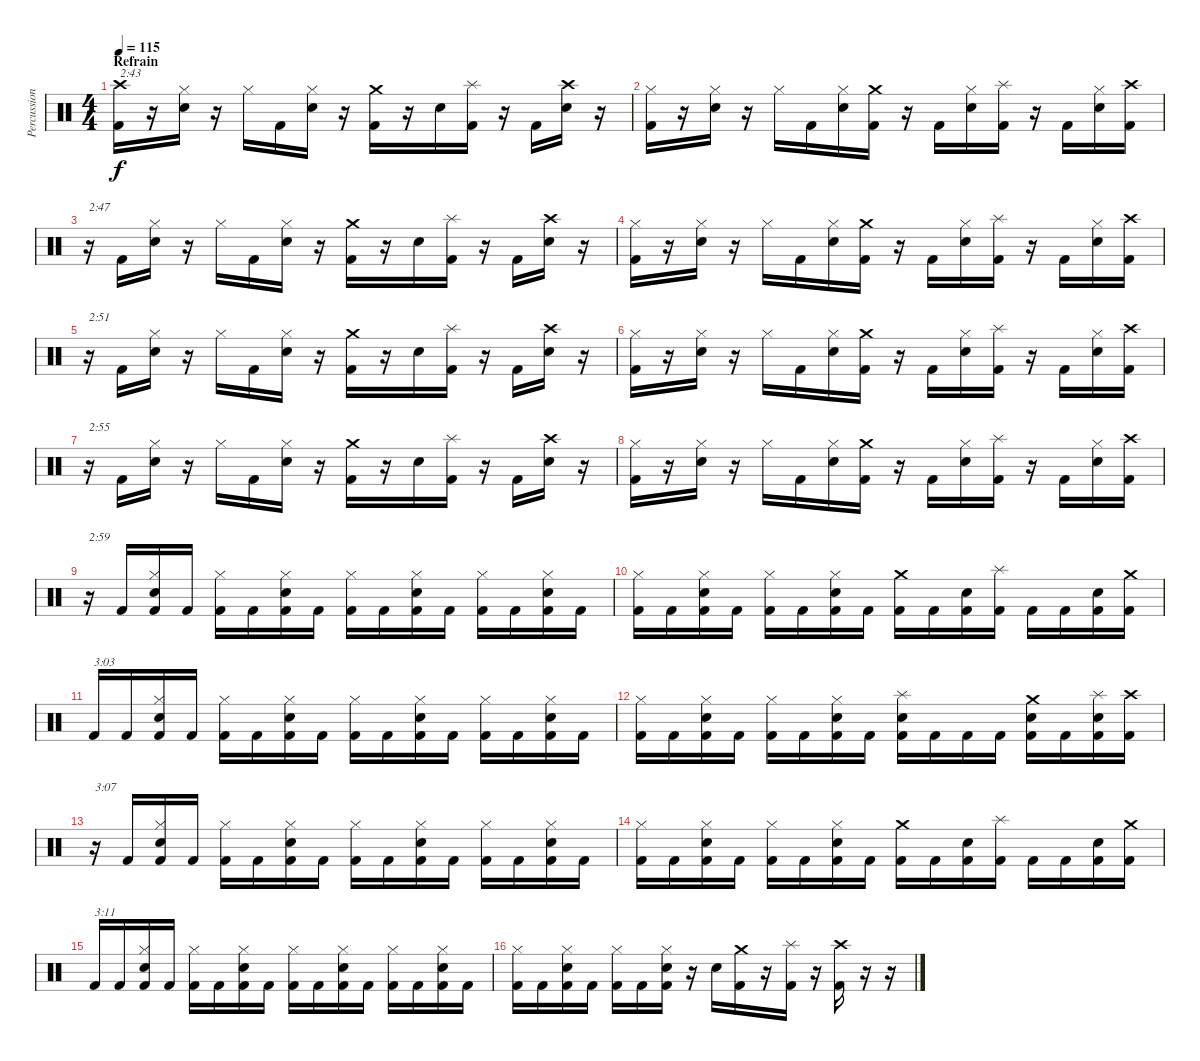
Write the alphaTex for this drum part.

\track ("Percussion" "Percussion") {instrument percussion}
\staff {score}
\articulation defaults
\ts (4 4)
\section ("" "Refrain")
\tempo 115
\clef neutral
\ks c
("Crash high (hit)" "Kick (hit) 2").16{txt "2:43" dy f} r.16 ("Hi-Hat (closed)" "Electric Snare (hit)").16 r.16 "Hi-Hat (closed)".16 "Kick (hit) 2".16 ("Hi-Hat (closed)" "Electric Snare (hit)").16 r.16 ("Crash medium (hit)" "Kick (hit) 2").16 r.16 "Electric Snare (hit)".16 ("Splash (hit)" "Kick (hit) 2").16 r.16 "Kick (hit) 2".16 ("Crash high (hit)" "Electric Snare (hit)").16 r.16 |
("Hi-Hat (closed)" "Kick (hit) 2").16 r.16 ("Hi-Hat (closed)" "Electric Snare (hit)").16 r.16 "Hi-Hat (closed)".16 "Kick (hit) 2".16 ("Hi-Hat (closed)" "Electric Snare (hit)").16 ("Crash medium (hit)" "Kick (hit) 2").16 r.16 "Kick (hit) 2".16 ("Hi-Hat (closed)" "Electric Snare (hit)").16 ("Splash (hit)" "Kick (hit) 2").16 r.16 "Kick (hit) 2".16 ("Hi-Hat (closed)" "Electric Snare (hit)").16 ("Crash high (hit)" "Kick (hit) 2").16 |
r.16{txt "2:47"} "Kick (hit) 2".16 ("Hi-Hat (closed)" "Electric Snare (hit)").16 r.16 "Hi-Hat (closed)".16 "Kick (hit) 2".16 ("Hi-Hat (closed)" "Electric Snare (hit)").16 r.16 ("Crash medium (hit)" "Kick (hit) 2").16 r.16 "Electric Snare (hit)".16 ("Splash (hit)" "Kick (hit) 2").16 r.16 "Kick (hit) 2".16 ("Crash high (hit)" "Electric Snare (hit)").16 r.16 |
("Hi-Hat (closed)" "Kick (hit) 2").16 r.16 ("Hi-Hat (closed)" "Electric Snare (hit)").16 r.16 "Hi-Hat (closed)".16 "Kick (hit) 2".16 ("Hi-Hat (closed)" "Electric Snare (hit)").16 ("Crash medium (hit)" "Kick (hit) 2").16 r.16 "Kick (hit) 2".16 ("Hi-Hat (closed)" "Electric Snare (hit)").16 ("Splash (hit)" "Kick (hit) 2").16 r.16 "Kick (hit) 2".16 ("Hi-Hat (closed)" "Electric Snare (hit)").16 ("Crash high (hit)" "Kick (hit) 2").16 |
r.16{txt "2:51"} "Kick (hit) 2".16 ("Hi-Hat (closed)" "Electric Snare (hit)").16 r.16 "Hi-Hat (closed)".16 "Kick (hit) 2".16 ("Hi-Hat (closed)" "Electric Snare (hit)").16 r.16 ("Crash medium (hit)" "Kick (hit) 2").16 r.16 "Electric Snare (hit)".16 ("Splash (hit)" "Kick (hit) 2").16 r.16 "Kick (hit) 2".16 ("Crash high (hit)" "Electric Snare (hit)").16 r.16 |
("Hi-Hat (closed)" "Kick (hit) 2").16 r.16 ("Hi-Hat (closed)" "Electric Snare (hit)").16 r.16 "Hi-Hat (closed)".16 "Kick (hit) 2".16 ("Hi-Hat (closed)" "Electric Snare (hit)").16 ("Crash medium (hit)" "Kick (hit) 2").16 r.16 "Kick (hit) 2".16 ("Hi-Hat (closed)" "Electric Snare (hit)").16 ("Splash (hit)" "Kick (hit) 2").16 r.16 "Kick (hit) 2".16 ("Hi-Hat (closed)" "Electric Snare (hit)").16 ("Crash high (hit)" "Kick (hit) 2").16 |
r.16{txt "2:55"} "Kick (hit) 2".16 ("Hi-Hat (closed)" "Electric Snare (hit)").16 r.16 "Hi-Hat (closed)".16 "Kick (hit) 2".16 ("Hi-Hat (closed)" "Electric Snare (hit)").16 r.16 ("Crash medium (hit)" "Kick (hit) 2").16 r.16 "Electric Snare (hit)".16 ("Splash (hit)" "Kick (hit) 2").16 r.16 "Kick (hit) 2".16 ("Crash high (hit)" "Electric Snare (hit)").16 r.16 |
("Hi-Hat (closed)" "Kick (hit) 2").16 r.16 ("Hi-Hat (closed)" "Electric Snare (hit)").16 r.16 "Hi-Hat (closed)".16 "Kick (hit) 2".16 ("Hi-Hat (closed)" "Electric Snare (hit)").16 ("Crash medium (hit)" "Kick (hit) 2").16 r.16 "Kick (hit) 2".16 ("Hi-Hat (closed)" "Electric Snare (hit)").16 ("Splash (hit)" "Kick (hit) 2").16 r.16 "Kick (hit) 2".16 ("Hi-Hat (closed)" "Electric Snare (hit)").16 ("Crash high (hit)" "Kick (hit) 2").16 |
r.16{txt "2:59"} "Kick (hit) 2".16 ("Hi-Hat (closed)" "Electric Snare (hit)" "Kick (hit) 2").16 "Kick (hit) 2".16 ("Hi-Hat (closed)" "Kick (hit) 2").16 "Kick (hit) 2".16 ("Hi-Hat (closed)" "Electric Snare (hit)" "Kick (hit) 2").16 "Kick (hit) 2".16 ("Hi-Hat (closed)" "Kick (hit) 2").16 "Kick (hit) 2".16 ("Hi-Hat (closed)" "Electric Snare (hit)" "Kick (hit) 2").16 "Kick (hit) 2".16 ("Hi-Hat (closed)" "Kick (hit) 2").16 "Kick (hit) 2".16 ("Hi-Hat (closed)" "Electric Snare (hit)" "Kick (hit) 2").16 "Kick (hit) 2".16 |
("Hi-Hat (closed)" "Kick (hit) 2").16 "Kick (hit) 2".16 ("Hi-Hat (closed)" "Electric Snare (hit)" "Kick (hit) 2").16 "Kick (hit) 2".16 ("Hi-Hat (closed)" "Kick (hit) 2").16 "Kick (hit) 2".16 ("Hi-Hat (closed)" "Electric Snare (hit)" "Kick (hit) 2").16 "Kick (hit) 2".16 ("Crash medium (hit)" "Kick (hit) 2").16 "Kick (hit) 2".16 ("Electric Snare (hit)" "Kick (hit) 2").16 ("Splash (hit)" "Kick (hit) 2").16 "Kick (hit) 2".16 "Kick (hit) 2".16 ("Electric Snare (hit)" "Kick (hit) 2").16 ("Crash medium (hit)" "Kick (hit) 2").16 |
"Kick (hit) 2".16{txt "3:03"} "Kick (hit) 2".16 ("Hi-Hat (closed)" "Electric Snare (hit)" "Kick (hit) 2").16 "Kick (hit) 2".16 ("Hi-Hat (closed)" "Kick (hit) 2").16 "Kick (hit) 2".16 ("Hi-Hat (closed)" "Electric Snare (hit)" "Kick (hit) 2").16 "Kick (hit) 2".16 ("Hi-Hat (closed)" "Kick (hit) 2").16 "Kick (hit) 2".16 ("Hi-Hat (closed)" "Electric Snare (hit)" "Kick (hit) 2").16 "Kick (hit) 2".16 ("Hi-Hat (closed)" "Kick (hit) 2").16 "Kick (hit) 2".16 ("Hi-Hat (closed)" "Electric Snare (hit)" "Kick (hit) 2").16 "Kick (hit) 2".16 |
("Hi-Hat (closed)" "Kick (hit) 2").16 "Kick (hit) 2".16 ("Hi-Hat (closed)" "Electric Snare (hit)" "Kick (hit) 2").16 "Kick (hit) 2".16 ("Hi-Hat (closed)" "Kick (hit) 2").16 "Kick (hit) 2".16 ("Hi-Hat (closed)" "Electric Snare (hit)" "Kick (hit) 2").16 "Kick (hit) 2".16 ("Splash (hit)" "Electric Snare (hit)" "Kick (hit) 2").16 "Kick (hit) 2".16 "Kick (hit) 2".16 "Kick (hit) 2".16 ("Crash medium (hit)" "Electric Snare (hit)" "Kick (hit) 2").16 "Kick (hit) 2".16 ("Splash (hit)" "Electric Snare (hit)" "Kick (hit) 2").16 ("Crash high (hit)" "Kick (hit) 2").16 |
r.16{txt "3:07"} "Kick (hit) 2".16 ("Hi-Hat (closed)" "Electric Snare (hit)" "Kick (hit) 2").16 "Kick (hit) 2".16 ("Hi-Hat (closed)" "Kick (hit) 2").16 "Kick (hit) 2".16 ("Hi-Hat (closed)" "Electric Snare (hit)" "Kick (hit) 2").16 "Kick (hit) 2".16 ("Hi-Hat (closed)" "Kick (hit) 2").16 "Kick (hit) 2".16 ("Hi-Hat (closed)" "Electric Snare (hit)" "Kick (hit) 2").16 "Kick (hit) 2".16 ("Hi-Hat (closed)" "Kick (hit) 2").16 "Kick (hit) 2".16 ("Hi-Hat (closed)" "Electric Snare (hit)" "Kick (hit) 2").16 "Kick (hit) 2".16 |
("Hi-Hat (closed)" "Kick (hit) 2").16 "Kick (hit) 2".16 ("Hi-Hat (closed)" "Electric Snare (hit)" "Kick (hit) 2").16 "Kick (hit) 2".16 ("Hi-Hat (closed)" "Kick (hit) 2").16 "Kick (hit) 2".16 ("Hi-Hat (closed)" "Electric Snare (hit)" "Kick (hit) 2").16 "Kick (hit) 2".16 ("Crash medium (hit)" "Kick (hit) 2").16 "Kick (hit) 2".16 ("Electric Snare (hit)" "Kick (hit) 2").16 ("Splash (hit)" "Kick (hit) 2").16 "Kick (hit) 2".16 "Kick (hit) 2".16 ("Electric Snare (hit)" "Kick (hit) 2").16 ("Crash medium (hit)" "Kick (hit) 2").16 |
"Kick (hit) 2".16{txt "3:11"} "Kick (hit) 2".16 ("Hi-Hat (closed)" "Electric Snare (hit)" "Kick (hit) 2").16 "Kick (hit) 2".16 ("Hi-Hat (closed)" "Kick (hit) 2").16 "Kick (hit) 2".16 ("Hi-Hat (closed)" "Electric Snare (hit)" "Kick (hit) 2").16 "Kick (hit) 2".16 ("Hi-Hat (closed)" "Kick (hit) 2").16 "Kick (hit) 2".16 ("Hi-Hat (closed)" "Electric Snare (hit)" "Kick (hit) 2").16 "Kick (hit) 2".16 ("Hi-Hat (closed)" "Kick (hit) 2").16 "Kick (hit) 2".16 ("Hi-Hat (closed)" "Electric Snare (hit)" "Kick (hit) 2").16 "Kick (hit) 2".16 |
("Hi-Hat (closed)" "Kick (hit) 2").16 "Kick (hit) 2".16 ("Hi-Hat (closed)" "Electric Snare (hit)" "Kick (hit) 2").16 "Kick (hit) 2".16 ("Hi-Hat (closed)" "Kick (hit) 2").16 "Kick (hit) 2".16 ("Hi-Hat (closed)" "Electric Snare (hit)" "Kick (hit) 2").16 r.16 "Electric Snare (hit)".16 ("Crash medium (hit)" "Kick (hit) 2").16 r.16 ("Splash (hit)" "Kick (hit) 2").16 r.16 ("Crash high (hit)" "Kick (hit) 2").16 r.16 r.16
